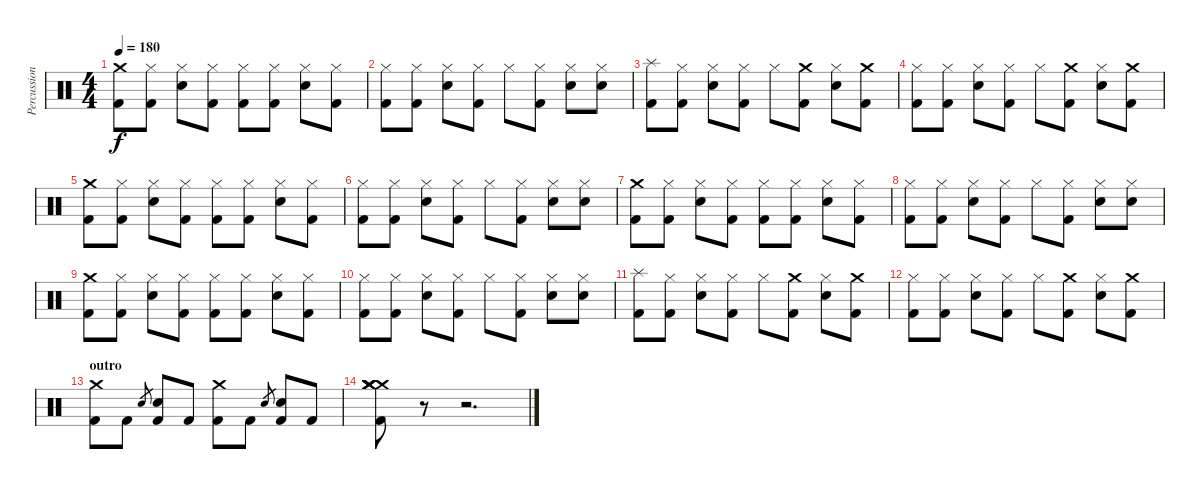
\track ("Percussion" "Percussion") {instrument percussion}
\staff {score}
\articulation defaults
\ts (4 4)
\tempo 180
\clef neutral
\ks c
("Crash medium (hit)" "Kick (hit) 2").8{dy f} ("Hi-Hat (closed)" "Kick (hit) 2").8 ("Hi-Hat (closed)" "Electric Snare (hit)").8 ("Hi-Hat (closed)" "Kick (hit) 2").8 ("Hi-Hat (closed)" "Kick (hit) 2").8 ("Hi-Hat (closed)" "Kick (hit) 2").8 ("Hi-Hat (closed)" "Electric Snare (hit)").8 ("Hi-Hat (closed)" "Kick (hit) 2").8 |
("Hi-Hat (closed)" "Kick (hit) 2").8 ("Hi-Hat (closed)" "Kick (hit) 2").8 ("Hi-Hat (closed)" "Electric Snare (hit)").8 ("Hi-Hat (closed)" "Kick (hit) 2").8 "Hi-Hat (closed)".8 ("Hi-Hat (closed)" "Kick (hit) 2").8 ("Hi-Hat (closed)" "Electric Snare (hit)").8 ("Hi-Hat (closed)" "Electric Snare (hit)").8 |
("Splash (hit)" "Kick (hit) 2").8 ("Hi-Hat (closed)" "Kick (hit) 2").8 ("Hi-Hat (closed)" "Electric Snare (hit)").8 ("Hi-Hat (closed)" "Kick (hit) 2").8 "Hi-Hat (closed)".8 ("Crash medium (hit)" "Kick (hit) 2").8 ("Hi-Hat (closed)" "Electric Snare (hit)").8 ("Crash medium (hit)" "Kick (hit) 2").8 |
("Hi-Hat (closed)" "Kick (hit) 2").8 ("Hi-Hat (closed)" "Kick (hit) 2").8 ("Hi-Hat (closed)" "Electric Snare (hit)").8 ("Hi-Hat (closed)" "Kick (hit) 2").8 "Hi-Hat (closed)".8 ("Crash medium (hit)" "Kick (hit) 2").8 ("Hi-Hat (closed)" "Electric Snare (hit)").8 ("Crash medium (hit)" "Kick (hit) 2").8 |
("Crash medium (hit)" "Kick (hit) 2").8 ("Hi-Hat (closed)" "Kick (hit) 2").8 ("Hi-Hat (closed)" "Electric Snare (hit)").8 ("Hi-Hat (closed)" "Kick (hit) 2").8 ("Hi-Hat (closed)" "Kick (hit) 2").8 ("Hi-Hat (closed)" "Kick (hit) 2").8 ("Hi-Hat (closed)" "Electric Snare (hit)").8 ("Hi-Hat (closed)" "Kick (hit) 2").8 |
("Hi-Hat (closed)" "Kick (hit) 2").8 ("Hi-Hat (closed)" "Kick (hit) 2").8 ("Hi-Hat (closed)" "Electric Snare (hit)").8 ("Hi-Hat (closed)" "Kick (hit) 2").8 "Hi-Hat (closed)".8 ("Hi-Hat (closed)" "Kick (hit) 2").8 ("Hi-Hat (closed)" "Electric Snare (hit)").8 ("Hi-Hat (closed)" "Electric Snare (hit)").8 |
("Crash medium (hit)" "Kick (hit) 2").8 ("Hi-Hat (closed)" "Kick (hit) 2").8 ("Hi-Hat (closed)" "Electric Snare (hit)").8 ("Hi-Hat (closed)" "Kick (hit) 2").8 ("Hi-Hat (closed)" "Kick (hit) 2").8 ("Hi-Hat (closed)" "Kick (hit) 2").8 ("Hi-Hat (closed)" "Electric Snare (hit)").8 ("Hi-Hat (closed)" "Kick (hit) 2").8 |
("Hi-Hat (closed)" "Kick (hit) 2").8 ("Hi-Hat (closed)" "Kick (hit) 2").8 ("Hi-Hat (closed)" "Electric Snare (hit)").8 ("Hi-Hat (closed)" "Kick (hit) 2").8 "Hi-Hat (closed)".8 ("Hi-Hat (closed)" "Kick (hit) 2").8 ("Hi-Hat (closed)" "Electric Snare (hit)").8 ("Hi-Hat (closed)" "Electric Snare (hit)").8 |
("Crash medium (hit)" "Kick (hit) 2").8 ("Hi-Hat (closed)" "Kick (hit) 2").8 ("Hi-Hat (closed)" "Electric Snare (hit)").8 ("Hi-Hat (closed)" "Kick (hit) 2").8 ("Hi-Hat (closed)" "Kick (hit) 2").8 ("Hi-Hat (closed)" "Kick (hit) 2").8 ("Hi-Hat (closed)" "Electric Snare (hit)").8 ("Hi-Hat (closed)" "Kick (hit) 2").8 |
("Hi-Hat (closed)" "Kick (hit) 2").8 ("Hi-Hat (closed)" "Kick (hit) 2").8 ("Hi-Hat (closed)" "Electric Snare (hit)").8 ("Hi-Hat (closed)" "Kick (hit) 2").8 "Hi-Hat (closed)".8 ("Hi-Hat (closed)" "Kick (hit) 2").8 ("Hi-Hat (closed)" "Electric Snare (hit)").8 ("Hi-Hat (closed)" "Electric Snare (hit)").8 |
("Splash (hit)" "Kick (hit) 2").8 ("Hi-Hat (closed)" "Kick (hit) 2").8 ("Hi-Hat (closed)" "Electric Snare (hit)").8 ("Hi-Hat (closed)" "Kick (hit) 2").8 "Hi-Hat (closed)".8 ("Crash medium (hit)" "Kick (hit) 2").8 ("Hi-Hat (closed)" "Electric Snare (hit)").8 ("Crash medium (hit)" "Kick (hit) 2").8 |
("Hi-Hat (closed)" "Kick (hit) 2").8 ("Hi-Hat (closed)" "Kick (hit) 2").8 ("Hi-Hat (closed)" "Electric Snare (hit)").8 ("Hi-Hat (closed)" "Kick (hit) 2").8 "Hi-Hat (closed)".8 ("Crash medium (hit)" "Kick (hit) 2").8 ("Hi-Hat (closed)" "Electric Snare (hit)").8 ("Crash medium (hit)" "Kick (hit) 2").8 |
\section ("" "outro")
("Crash medium (hit)" "Kick (hit) 2").8 "Kick (hit) 2".8 "Electric Snare (hit)".8{gr} ("Electric Snare (hit)" "Kick (hit) 2").8 "Kick (hit) 2".8 ("Crash medium (hit)" "Kick (hit) 2").8 "Kick (hit) 2".8 "Electric Snare (hit)".8{gr} ("Electric Snare (hit)" "Kick (hit) 2").8 "Kick (hit) 2".8 |
("Crash medium (hit)" "Crash medium (hit)" "Crash medium (hit)" "Crash medium (hit)" "Crash medium (hit)" "Kick (hit) 2").8 r.8 r.2{d}
